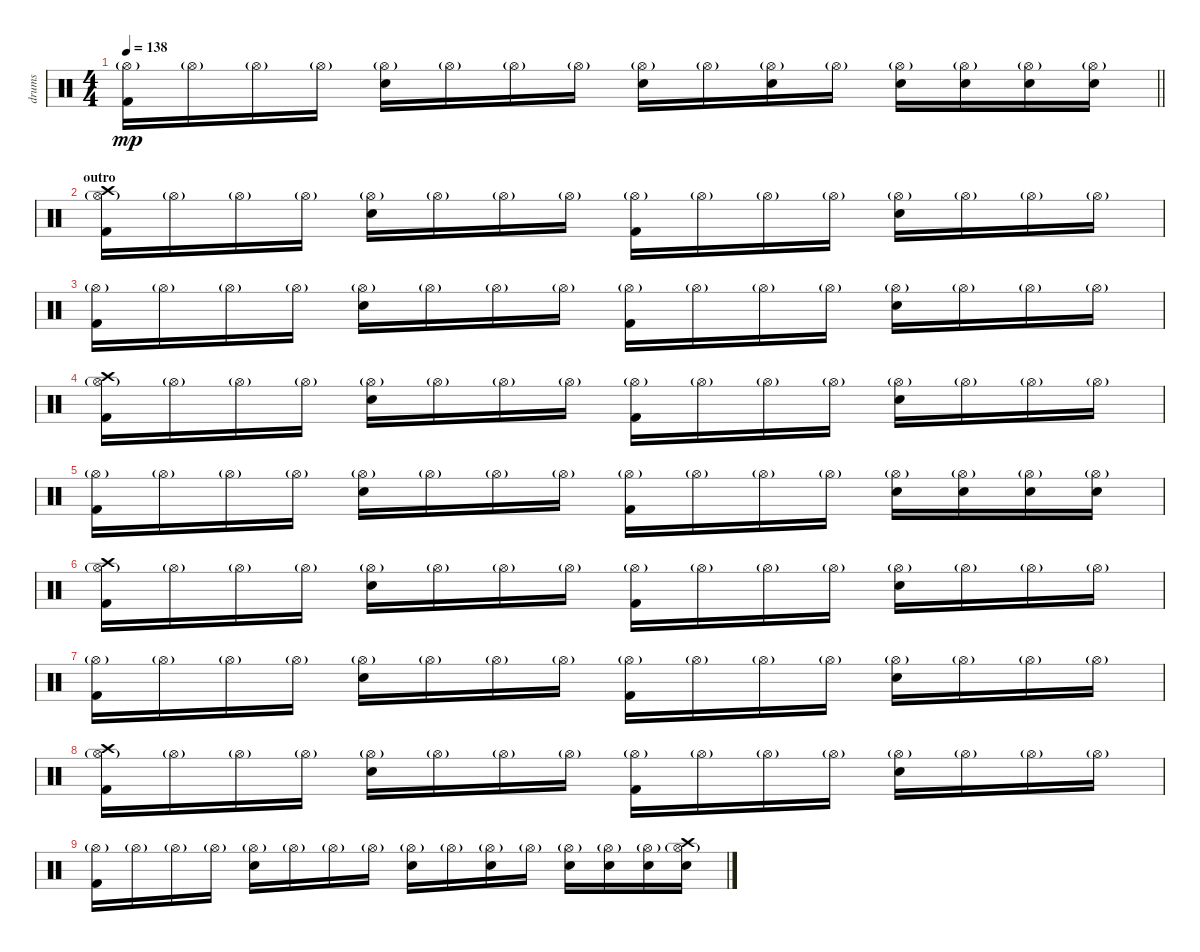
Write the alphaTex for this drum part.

\track ("drums" "drums") {instrument percussion}
\staff {score}
\articulation defaults
\ts (4 4)
\tempo 138
\clef neutral
\barLineRight lightlight
\ks c
("Kick (hit) 2" "Hi-Hat (open)"{g}).16{dy mp} "Hi-Hat (open)"{g}.16 "Hi-Hat (open)"{g}.16 "Hi-Hat (open)"{g}.16 ("Electric Snare (hit)" "Hi-Hat (open)"{g}).16 "Hi-Hat (open)"{g}.16 "Hi-Hat (open)"{g}.16 "Hi-Hat (open)"{g}.16 ("Electric Snare (hit)" "Hi-Hat (open)"{g}).16 "Hi-Hat (open)"{g}.16 ("Electric Snare (hit)" "Hi-Hat (open)"{g}).16 "Hi-Hat (open)"{g}.16 ("Electric Snare (hit)" "Hi-Hat (open)"{g}).16 ("Electric Snare (hit)" "Hi-Hat (open)"{g}).16 ("Electric Snare (hit)" "Hi-Hat (open)"{g}).16 ("Electric Snare (hit)" "Hi-Hat (open)"{g}).16 |
\section ("" "outro ")
("Kick (hit) 2" "Hi-Hat (open)"{g} "Crash high (hit)").16 "Hi-Hat (open)"{g}.16 "Hi-Hat (open)"{g}.16 "Hi-Hat (open)"{g}.16 ("Electric Snare (hit)" "Hi-Hat (open)"{g}).16 "Hi-Hat (open)"{g}.16 "Hi-Hat (open)"{g}.16 "Hi-Hat (open)"{g}.16 ("Kick (hit) 2" "Hi-Hat (open)"{g}).16 "Hi-Hat (open)"{g}.16 "Hi-Hat (open)"{g}.16 "Hi-Hat (open)"{g}.16 ("Electric Snare (hit)" "Hi-Hat (open)"{g}).16 "Hi-Hat (open)"{g}.16 "Hi-Hat (open)"{g}.16 "Hi-Hat (open)"{g}.16 |
("Kick (hit) 2" "Hi-Hat (open)"{g}).16 "Hi-Hat (open)"{g}.16 "Hi-Hat (open)"{g}.16 "Hi-Hat (open)"{g}.16 ("Electric Snare (hit)" "Hi-Hat (open)"{g}).16 "Hi-Hat (open)"{g}.16 "Hi-Hat (open)"{g}.16 "Hi-Hat (open)"{g}.16 ("Kick (hit) 2" "Hi-Hat (open)"{g}).16 "Hi-Hat (open)"{g}.16 "Hi-Hat (open)"{g}.16 "Hi-Hat (open)"{g}.16 ("Electric Snare (hit)" "Hi-Hat (open)"{g}).16 "Hi-Hat (open)"{g}.16 "Hi-Hat (open)"{g}.16 "Hi-Hat (open)"{g}.16 |
("Kick (hit) 2" "Hi-Hat (open)"{g} "Crash high (hit)").16 "Hi-Hat (open)"{g}.16 "Hi-Hat (open)"{g}.16 "Hi-Hat (open)"{g}.16 ("Electric Snare (hit)" "Hi-Hat (open)"{g}).16 "Hi-Hat (open)"{g}.16 "Hi-Hat (open)"{g}.16 "Hi-Hat (open)"{g}.16 ("Kick (hit) 2" "Hi-Hat (open)"{g}).16 "Hi-Hat (open)"{g}.16 "Hi-Hat (open)"{g}.16 "Hi-Hat (open)"{g}.16 ("Electric Snare (hit)" "Hi-Hat (open)"{g}).16 "Hi-Hat (open)"{g}.16 "Hi-Hat (open)"{g}.16 "Hi-Hat (open)"{g}.16 |
("Kick (hit) 2" "Hi-Hat (open)"{g}).16 "Hi-Hat (open)"{g}.16 "Hi-Hat (open)"{g}.16 "Hi-Hat (open)"{g}.16 ("Electric Snare (hit)" "Hi-Hat (open)"{g}).16 "Hi-Hat (open)"{g}.16 "Hi-Hat (open)"{g}.16 "Hi-Hat (open)"{g}.16 ("Kick (hit) 2" "Hi-Hat (open)"{g}).16 "Hi-Hat (open)"{g}.16 "Hi-Hat (open)"{g}.16 "Hi-Hat (open)"{g}.16 ("Electric Snare (hit)" "Hi-Hat (open)"{g}).16 ("Electric Snare (hit)" "Hi-Hat (open)"{g}).16 ("Electric Snare (hit)" "Hi-Hat (open)"{g}).16 ("Electric Snare (hit)" "Hi-Hat (open)"{g}).16 |
("Kick (hit) 2" "Hi-Hat (open)"{g} "Crash high (hit)").16 "Hi-Hat (open)"{g}.16 "Hi-Hat (open)"{g}.16 "Hi-Hat (open)"{g}.16 ("Electric Snare (hit)" "Hi-Hat (open)"{g}).16 "Hi-Hat (open)"{g}.16 "Hi-Hat (open)"{g}.16 "Hi-Hat (open)"{g}.16 ("Kick (hit) 2" "Hi-Hat (open)"{g}).16 "Hi-Hat (open)"{g}.16 "Hi-Hat (open)"{g}.16 "Hi-Hat (open)"{g}.16 ("Electric Snare (hit)" "Hi-Hat (open)"{g}).16 "Hi-Hat (open)"{g}.16 "Hi-Hat (open)"{g}.16 "Hi-Hat (open)"{g}.16 |
("Kick (hit) 2" "Hi-Hat (open)"{g}).16 "Hi-Hat (open)"{g}.16 "Hi-Hat (open)"{g}.16 "Hi-Hat (open)"{g}.16 ("Electric Snare (hit)" "Hi-Hat (open)"{g}).16 "Hi-Hat (open)"{g}.16 "Hi-Hat (open)"{g}.16 "Hi-Hat (open)"{g}.16 ("Kick (hit) 2" "Hi-Hat (open)"{g}).16 "Hi-Hat (open)"{g}.16 "Hi-Hat (open)"{g}.16 "Hi-Hat (open)"{g}.16 ("Electric Snare (hit)" "Hi-Hat (open)"{g}).16 "Hi-Hat (open)"{g}.16 "Hi-Hat (open)"{g}.16 "Hi-Hat (open)"{g}.16 |
("Kick (hit) 2" "Hi-Hat (open)"{g} "Crash high (hit)").16 "Hi-Hat (open)"{g}.16 "Hi-Hat (open)"{g}.16 "Hi-Hat (open)"{g}.16 ("Electric Snare (hit)" "Hi-Hat (open)"{g}).16 "Hi-Hat (open)"{g}.16 "Hi-Hat (open)"{g}.16 "Hi-Hat (open)"{g}.16 ("Kick (hit) 2" "Hi-Hat (open)"{g}).16 "Hi-Hat (open)"{g}.16 "Hi-Hat (open)"{g}.16 "Hi-Hat (open)"{g}.16 ("Electric Snare (hit)" "Hi-Hat (open)"{g}).16 "Hi-Hat (open)"{g}.16 "Hi-Hat (open)"{g}.16 "Hi-Hat (open)"{g}.16 |
("Kick (hit) 2" "Hi-Hat (open)"{g}).16 "Hi-Hat (open)"{g}.16 "Hi-Hat (open)"{g}.16 "Hi-Hat (open)"{g}.16 ("Electric Snare (hit)" "Hi-Hat (open)"{g}).16 "Hi-Hat (open)"{g}.16 "Hi-Hat (open)"{g}.16 "Hi-Hat (open)"{g}.16 ("Electric Snare (hit)" "Hi-Hat (open)"{g}).16 "Hi-Hat (open)"{g}.16 ("Electric Snare (hit)" "Hi-Hat (open)"{g}).16 "Hi-Hat (open)"{g}.16 ("Electric Snare (hit)" "Hi-Hat (open)"{g}).16 ("Electric Snare (hit)" "Hi-Hat (open)"{g}).16 ("Electric Snare (hit)" "Hi-Hat (open)"{g}).16 ("Electric Snare (hit)" "Hi-Hat (open)"{g} "Crash high (hit)").16
